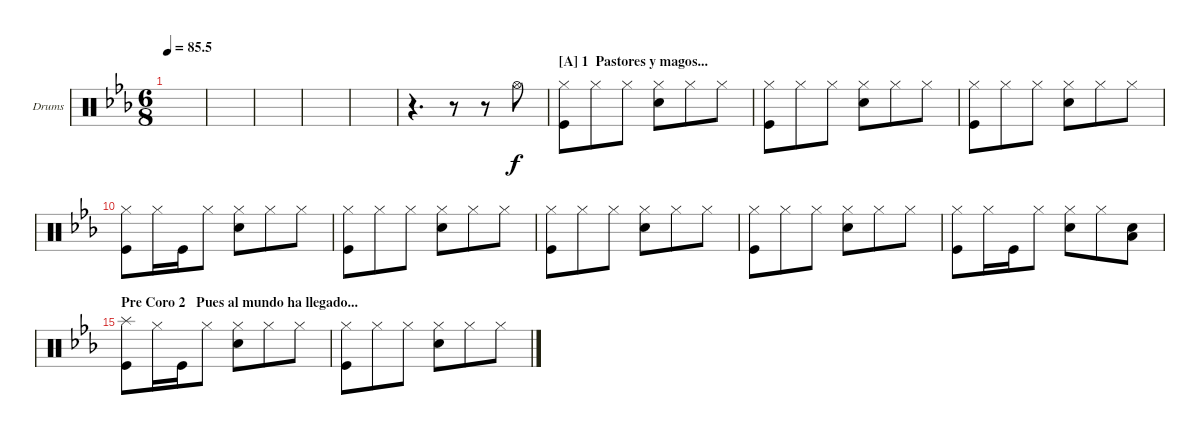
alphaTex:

\defaultSystemsLayout 4
\bracketExtendMode groupsimilarinstruments
\multiTrackTrackNamePolicy allsystems
\firstSystemTrackNameOrientation horizontal
\otherSystemsTrackNameOrientation horizontal
\defaultBarNumberDisplay FirstOfSystem
\track ("Drumkit" "Drums") {instrument percussion}
\staff {score}
\articulation defaults
\ts (6 8)
\tempo
85.5
\accidentals auto
\clef neutral
\ottava regular
\simile none
\ks eb
|
|
|
|
|
r.4{d} r.8 r.8 "Hi-Hat (open)".8 |
\section ("A" "1  Pastores y magos...")
("Hi-Hat (closed)" "Kick (hit)").8 "Hi-Hat (closed)".8 "Hi-Hat (closed)".8 ("Hi-Hat (closed)" "Snare (hit) 2").8 "Hi-Hat (closed)".8 "Hi-Hat (closed)".8 |
("Hi-Hat (closed)" "Kick (hit)").8 "Hi-Hat (closed)".8 "Hi-Hat (closed)".8 ("Hi-Hat (closed)" "Snare (hit) 2").8 "Hi-Hat (closed)".8 "Hi-Hat (closed)".8 |
("Hi-Hat (closed)" "Kick (hit)").8 "Hi-Hat (closed)".8 "Hi-Hat (closed)".8 ("Hi-Hat (closed)" "Snare (hit) 2").8 "Hi-Hat (closed)".8 "Hi-Hat (closed)".8 |
("Hi-Hat (closed)" "Kick (hit)").8 "Hi-Hat (closed)".16 "Kick (hit)".16 "Hi-Hat (closed)".8 ("Hi-Hat (closed)" "Snare (hit) 2").8 "Hi-Hat (closed)".8 "Hi-Hat (closed)".8 |
("Hi-Hat (closed)" "Kick (hit)").8 "Hi-Hat (closed)".8 "Hi-Hat (closed)".8 ("Hi-Hat (closed)" "Snare (hit) 2").8 "Hi-Hat (closed)".8 "Hi-Hat (closed)".8 |
("Hi-Hat (closed)" "Kick (hit)").8 "Hi-Hat (closed)".8 "Hi-Hat (closed)".8 ("Hi-Hat (closed)" "Snare (hit) 2").8 "Hi-Hat (closed)".8 "Hi-Hat (closed)".8 |
("Hi-Hat (closed)" "Kick (hit)").8 "Hi-Hat (closed)".8 "Hi-Hat (closed)".8 ("Hi-Hat (closed)" "Snare (hit) 2").8 "Hi-Hat (closed)".8 "Hi-Hat (closed)".8 |
("Hi-Hat (closed)" "Kick (hit)").8 "Hi-Hat (closed)".16 "Kick (hit)".16 "Hi-Hat (closed)".8 ("Hi-Hat (closed)" "Snare (hit) 2").8 "Hi-Hat (closed)".8 ("Snare (hit) 2" "Low Tom (hit)").8 |
\section ("" "Pre Coro 2   Pues al mundo ha llegado...")
("Kick (hit)" "Splash (hit)").8 "Hi-Hat (closed)".16 "Kick (hit)".16 "Hi-Hat (closed)".8 ("Snare (hit) 2" "Hi-Hat (closed)").8 "Hi-Hat (closed)".8 "Hi-Hat (closed)".8 |
("Hi-Hat (closed)" "Kick (hit)").8 "Hi-Hat (closed)".8 "Hi-Hat (closed)".8 ("Hi-Hat (closed)" "Snare (hit) 2").8 "Hi-Hat (closed)".8 "Hi-Hat (closed)".8
